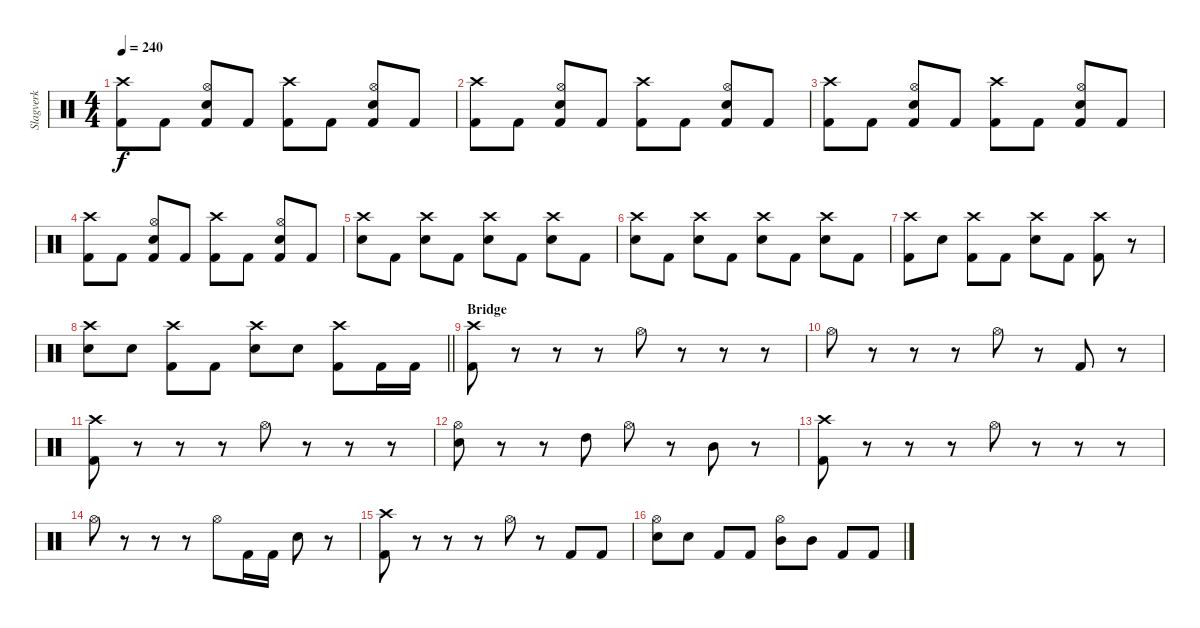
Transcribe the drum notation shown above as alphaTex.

\track ("Slagverk" "Slagverk") {instrument percussion}
\staff {score}
\articulation defaults
\ts (4 4)
\section ("" "")
\tempo 240
\clef neutral
\ks c
("Crash high (hit)" "Kick (hit) 2").8{dy f} "Kick (hit) 2".8 ("Hi-Hat (open)" "Electric Snare (hit)" "Kick (hit) 2").8 "Kick (hit) 2".8 ("Crash high (hit)" "Kick (hit) 2").8 "Kick (hit) 2".8 ("Hi-Hat (open)" "Electric Snare (hit)" "Kick (hit) 2").8 "Kick (hit) 2".8 |
("Crash high (hit)" "Kick (hit) 2").8 "Kick (hit) 2".8 ("Hi-Hat (open)" "Electric Snare (hit)" "Kick (hit) 2").8 "Kick (hit) 2".8 ("Crash high (hit)" "Kick (hit) 2").8 "Kick (hit) 2".8 ("Hi-Hat (open)" "Electric Snare (hit)" "Kick (hit) 2").8 "Kick (hit) 2".8 |
("Crash high (hit)" "Kick (hit) 2").8 "Kick (hit) 2".8 ("Hi-Hat (open)" "Electric Snare (hit)" "Kick (hit) 2").8 "Kick (hit) 2".8 ("Crash high (hit)" "Kick (hit) 2").8 "Kick (hit) 2".8 ("Hi-Hat (open)" "Electric Snare (hit)" "Kick (hit) 2").8 "Kick (hit) 2".8 |
("Crash high (hit)" "Kick (hit) 2").8 "Kick (hit) 2".8 ("Hi-Hat (open)" "Electric Snare (hit)" "Kick (hit) 2").8 "Kick (hit) 2".8 ("Crash high (hit)" "Kick (hit) 2").8 "Kick (hit) 2".8 ("Hi-Hat (open)" "Electric Snare (hit)" "Kick (hit) 2").8 "Kick (hit) 2".8 |
("Crash high (hit)" "Electric Snare (hit)").8 "Kick (hit) 2".8 ("Crash high (hit)" "Electric Snare (hit)").8 "Kick (hit) 2".8 ("Crash high (hit)" "Electric Snare (hit)").8 "Kick (hit) 2".8 ("Crash high (hit)" "Electric Snare (hit)").8 "Kick (hit) 2".8 |
("Crash high (hit)" "Electric Snare (hit)").8 "Kick (hit) 2".8 ("Crash high (hit)" "Electric Snare (hit)").8 "Kick (hit) 2".8 ("Crash high (hit)" "Electric Snare (hit)").8 "Kick (hit) 2".8 ("Crash high (hit)" "Electric Snare (hit)").8 "Kick (hit) 2".8 |
("Crash high (hit)" "Kick (hit) 2").8 "Electric Snare (hit)".8 ("Crash high (hit)" "Kick (hit) 2").8 "Kick (hit) 2".8 ("Crash high (hit)" "Electric Snare (hit)").8 "Kick (hit) 2".8 ("Crash high (hit)" "Kick (hit) 2").8 r.8 |
\barLineRight lightlight
("Crash high (hit)" "Electric Snare (hit)").8 "Electric Snare (hit)".8 ("Crash high (hit)" "Kick (hit) 2").8 "Kick (hit) 2".8 ("Crash high (hit)" "Electric Snare (hit)").8 "Electric Snare (hit)".8 ("Crash high (hit)" "Kick (hit) 2").8 "Kick (hit) 2".16 "Kick (hit) 2".16 |
\section ("" "Bridge")
("Crash high (hit)" "Kick (hit) 2").8 r.8 r.8 r.8 "Hi-Hat (open)".8 r.8 r.8 r.8 |
"Hi-Hat (open)".8 r.8 r.8 r.8 "Hi-Hat (open)".8 r.8 "Kick (hit) 2".8 r.8 |
("Crash high (hit)" "Kick (hit) 2").8 r.8 r.8 r.8 "Hi-Hat (open)".8 r.8 r.8 r.8 |
("Hi-Hat (open)" "Electric Snare (hit)").8 r.8 r.8 "High Tom (hit)".8 "Hi-Hat (open)".8 r.8 "Mid Tom (hit)".8 r.8 |
("Crash high (hit)" "Kick (hit) 2").8 r.8 r.8 r.8 "Hi-Hat (open)".8 r.8 r.8 r.8 |
"Hi-Hat (open)".8 r.8 r.8 r.8 "Hi-Hat (open)".8 "Kick (hit) 2".16 "Kick (hit) 2".16 "Electric Snare (hit)".8 r.8 |
("Crash high (hit)" "Kick (hit) 2").8 r.8 r.8 r.8 "Hi-Hat (open)".8 r.8 "Kick (hit) 2".8 "Kick (hit) 2".8 |
("Hi-Hat (open)" "Electric Snare (hit)").8 "Electric Snare (hit)".8 "Kick (hit) 2".8 "Kick (hit) 2".8 ("Hi-Hat (open)" "Mid Tom (hit)").8 "Mid Tom (hit)".8 "Kick (hit) 2".8 "Kick (hit) 2".8
